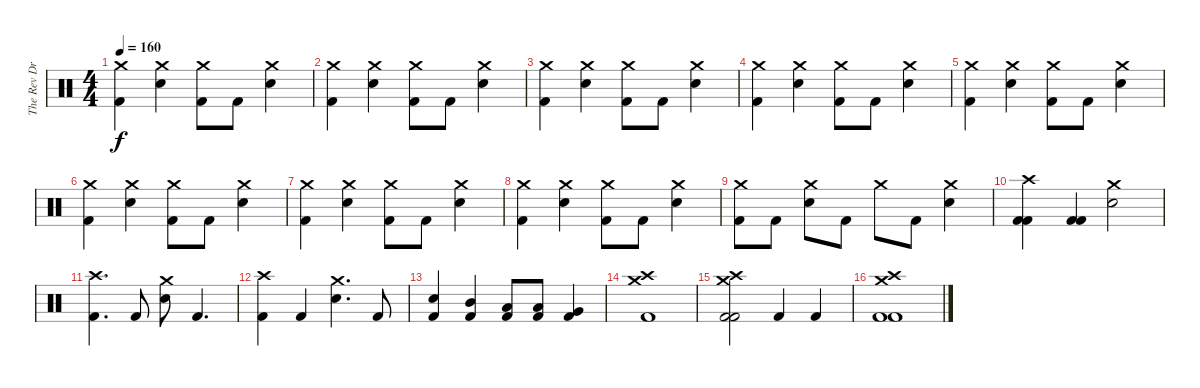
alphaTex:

\track ("The Rev Drum" "The Rev Dr") {instrument percussion}
\staff {score}
\articulation defaults
\ts (4 4)
\tempo 160
\clef neutral
\ks c
("Crash medium (hit)" "Kick (hit) 2").4{dy f} ("Crash medium (hit)" "Electric Snare (hit)").4 ("Crash medium (hit)" "Kick (hit) 2").8 "Kick (hit) 2".8 ("Crash medium (hit)" "Electric Snare (hit)").4 |
("Crash medium (hit)" "Kick (hit) 2").4 ("Crash medium (hit)" "Electric Snare (hit)").4 ("Crash medium (hit)" "Kick (hit) 2").8 "Kick (hit) 2".8 ("Crash medium (hit)" "Electric Snare (hit)").4 |
("Crash medium (hit)" "Kick (hit) 2").4 ("Crash medium (hit)" "Electric Snare (hit)").4 ("Crash medium (hit)" "Kick (hit) 2").8 "Kick (hit) 2".8 ("Crash medium (hit)" "Electric Snare (hit)").4 |
("Crash medium (hit)" "Kick (hit) 2").4 ("Crash medium (hit)" "Electric Snare (hit)").4 ("Crash medium (hit)" "Kick (hit) 2").8 "Kick (hit) 2".8 ("Crash medium (hit)" "Electric Snare (hit)").4 |
("Crash medium (hit)" "Kick (hit) 2").4 ("Crash medium (hit)" "Electric Snare (hit)").4 ("Crash medium (hit)" "Kick (hit) 2").8 "Kick (hit) 2".8 ("Crash medium (hit)" "Electric Snare (hit)").4 |
("Crash medium (hit)" "Kick (hit) 2").4 ("Crash medium (hit)" "Electric Snare (hit)").4 ("Crash medium (hit)" "Kick (hit) 2").8 "Kick (hit) 2".8 ("Crash medium (hit)" "Electric Snare (hit)").4 |
("Crash medium (hit)" "Kick (hit) 2").4 ("Crash medium (hit)" "Electric Snare (hit)").4 ("Crash medium (hit)" "Kick (hit) 2").8 "Kick (hit) 2".8 ("Crash medium (hit)" "Electric Snare (hit)").4 |
("Crash medium (hit)" "Kick (hit) 2").4 ("Crash medium (hit)" "Electric Snare (hit)").4 ("Crash medium (hit)" "Kick (hit) 2").8 "Kick (hit) 2".8 ("Crash medium (hit)" "Electric Snare (hit)").4 |
("Crash medium (hit)" "Kick (hit) 2").8 "Kick (hit) 2".8 ("Crash medium (hit)" "Electric Snare (hit)").8 "Kick (hit) 2".8 "Crash medium (hit)".8 "Kick (hit) 2".8 ("Crash medium (hit)" "Electric Snare (hit)").4 |
("Crash high (hit)" "Kick (hit) 2" "Kick (hit) 2").4 ("Kick (hit) 2" "Kick (hit) 2").4 ("Crash medium (hit)" "Electric Snare (hit)").2 |
("Crash high (hit)" "Kick (hit) 2").4{d} "Kick (hit) 2".8 ("Crash medium (hit)" "Electric Snare (hit)").8 "Kick (hit) 2".4{d} |
("Crash high (hit)" "Kick (hit) 2").4 "Kick (hit) 2".4 ("Crash medium (hit)" "Electric Snare (hit)").4{d} "Kick (hit) 2".8 |
("Electric Snare (hit)" "Kick (hit) 2").4 ("Mid Tom (hit)" "Kick (hit) 2").4 ("Low Tom (hit)" "Kick (hit) 2").8 ("Low Tom (hit)" "Kick (hit) 2").8 ("Very Low Tom (hit)" "Kick (hit) 2").4 |
("Crash high (hit)" "Crash medium (hit)" "Kick (hit) 2").1 |
("Crash medium (hit)" "Crash high (hit)" "Kick (hit) 2" "Kick (hit) 2").2 "Kick (hit) 2".4 "Kick (hit) 2".4 |
("Crash high (hit)" "Crash medium (hit)" "Kick (hit) 2" "Kick (hit) 2").1
